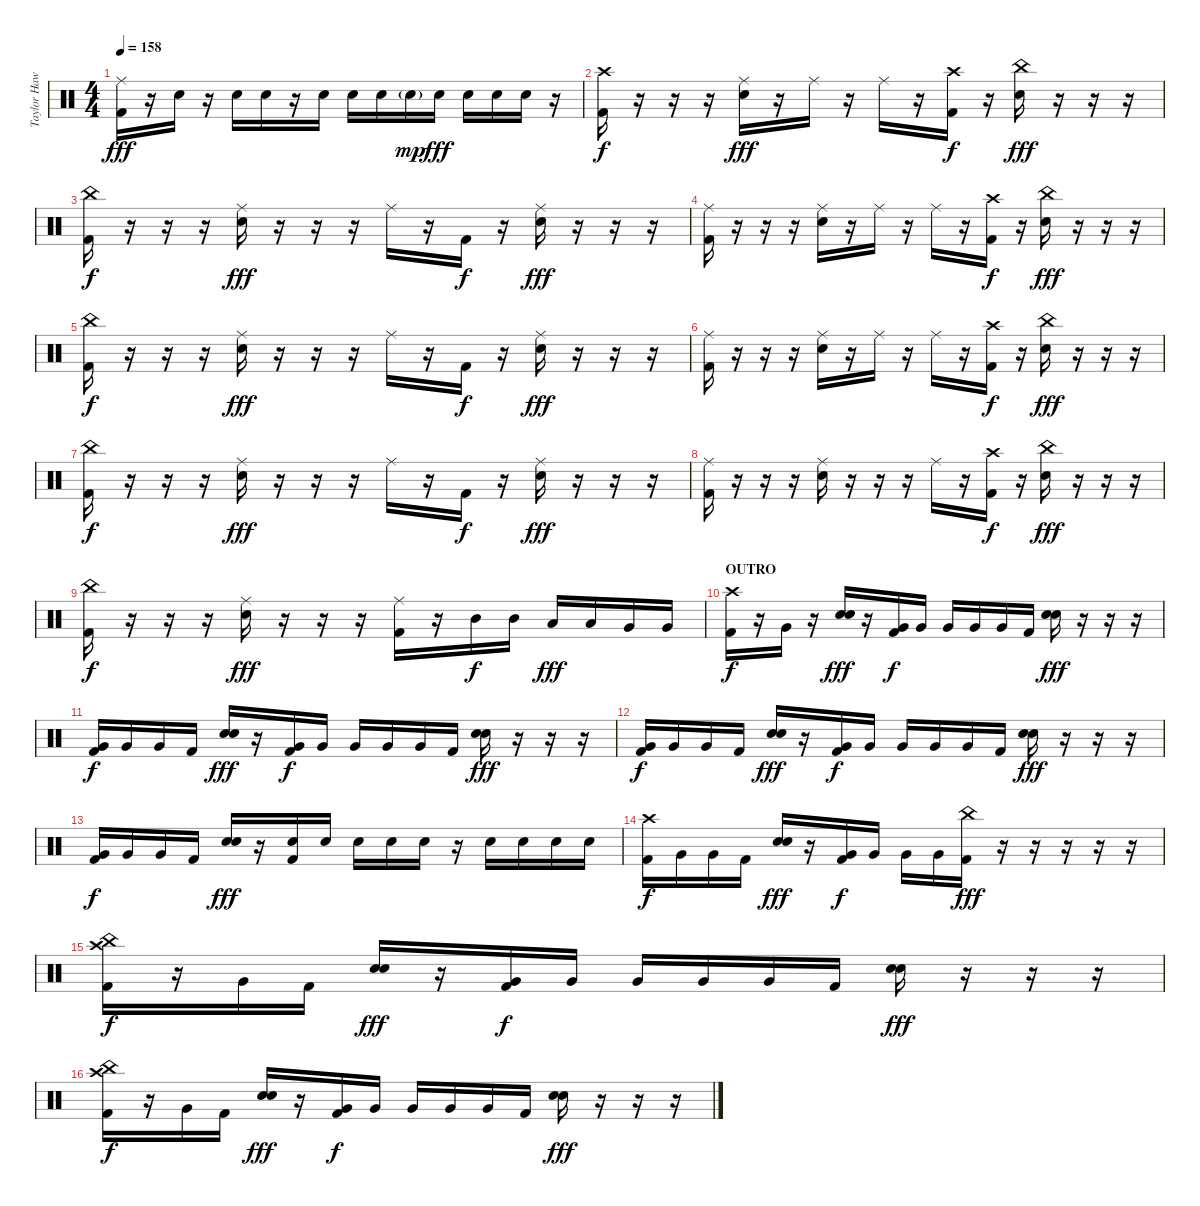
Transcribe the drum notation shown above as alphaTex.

\track ("Taylor Hawkins (Drums)" "Taylor Haw") {instrument percussion}
\staff {score}
\articulation defaults
\ts (4 4)
\tempo 158
\clef neutral
\ks c
("Ride (middle)" "Kick (hit) 2").16{dy fff} r.16 "Electric Snare (hit)".16 r.16 "Electric Snare (hit)".16 "Electric Snare (hit)".16 r.16 "Electric Snare (hit)".16 "Electric Snare (hit)".16 "Electric Snare (hit)".16 "Electric Snare (hit)"{g}.16{dy mp} "Electric Snare (hit)".16{dy fff} "Electric Snare (hit)".16 "Electric Snare (hit)".16 "Electric Snare (hit)".16 r.16 |
("Crash high (hit)" "Kick (hit) 2").16{dy f} r.16 r.16 r.16 ("Ride (middle)" "Electric Snare (hit)").16{dy fff} r.16 "Ride (middle)".16 r.16 "Ride (middle)".16 r.16 ("Crash high (hit)" "Kick (hit) 2").16{dy f} r.16 ("China (hit)" "Electric Snare (hit)").16{dy fff} r.16 r.16 r.16 |
("China (hit)" "Kick (hit) 2").16{dy f} r.16 r.16 r.16 ("Ride (middle)" "Electric Snare (hit)").16{dy fff} r.16 r.16 r.16 "Ride (middle)".16 r.16 "Kick (hit) 2".16{dy f} r.16 ("Ride (middle)" "Electric Snare (hit)").16{dy fff} r.16 r.16 r.16 |
("Ride (middle)" "Kick (hit) 2").16 r.16 r.16 r.16 ("Ride (middle)" "Electric Snare (hit)").16 r.16 "Ride (middle)".16 r.16 "Ride (middle)".16 r.16 ("Crash high (hit)" "Kick (hit) 2").16{dy f} r.16 ("China (hit)" "Electric Snare (hit)").16{dy fff} r.16 r.16 r.16 |
("China (hit)" "Kick (hit) 2").16{dy f} r.16 r.16 r.16 ("Ride (middle)" "Electric Snare (hit)").16{dy fff} r.16 r.16 r.16 "Ride (middle)".16 r.16 "Kick (hit) 2".16{dy f} r.16 ("Ride (middle)" "Electric Snare (hit)").16{dy fff} r.16 r.16 r.16 |
("Ride (middle)" "Kick (hit) 2").16 r.16 r.16 r.16 ("Ride (middle)" "Electric Snare (hit)").16 r.16 "Ride (middle)".16 r.16 "Ride (middle)".16 r.16 ("Crash high (hit)" "Kick (hit) 2").16{dy f} r.16 ("China (hit)" "Electric Snare (hit)").16{dy fff} r.16 r.16 r.16 |
("China (hit)" "Kick (hit) 2").16{dy f} r.16 r.16 r.16 ("Ride (middle)" "Electric Snare (hit)").16{dy fff} r.16 r.16 r.16 "Ride (middle)".16 r.16 "Kick (hit) 2".16{dy f} r.16 ("Ride (middle)" "Electric Snare (hit)").16{dy fff} r.16 r.16 r.16 |
("Ride (middle)" "Kick (hit) 2").16 r.16 r.16 r.16 ("Ride (middle)" "Electric Snare (hit)").16 r.16 r.16 r.16 "Ride (middle)".16 r.16 ("Crash high (hit)" "Kick (hit) 2").16{dy f} r.16 ("China (hit)" "Electric Snare (hit)").16{dy fff} r.16 r.16 r.16 |
("China (hit)" "Kick (hit) 2").16{dy f} r.16 r.16 r.16 ("Ride (middle)" "Electric Snare (hit)").16{dy fff} r.16 r.16 r.16 ("Ride (middle)" "Kick (hit) 2").16 r.16 "Mid Tom (hit)".16{dy f} "Mid Tom (hit)".16 "Low Tom (hit)".16{dy fff} "Low Tom (hit)".16 "Very Low Tom (hit)".16 "Very Low Tom (hit)".16 |
\section ("" "OUTRO")
("Crash high (hit)" "Kick (hit) 2").16{dy f} r.16 "Very Low Tom (hit)".16 r.16 ("Electric Snare (hit)" "Electric Snare (hit)").16{bu 120 dy fff} r.16 ("Very Low Tom (hit)" "Kick (hit) 2").16{dy f} "Very Low Tom (hit)".16 "Very Low Tom (hit)".16 "Very Low Tom (hit)".16 "Very Low Tom (hit)".16 "Kick (hit) 2".16 ("Electric Snare (hit)" "Electric Snare (hit)").16{bu 120 dy fff} r.16 r.16 r.16 |
("Very Low Tom (hit)" "Kick (hit) 2").16{dy f} "Very Low Tom (hit)".16 "Very Low Tom (hit)".16 "Kick (hit) 2".16 ("Electric Snare (hit)" "Electric Snare (hit)").16{bu 120 dy fff} r.16 ("Very Low Tom (hit)" "Kick (hit) 2").16{dy f} "Very Low Tom (hit)".16 "Very Low Tom (hit)".16 "Very Low Tom (hit)".16 "Very Low Tom (hit)".16 "Kick (hit) 2".16 ("Electric Snare (hit)" "Electric Snare (hit)").16{bu 120 dy fff} r.16 r.16 r.16 |
("Very Low Tom (hit)" "Kick (hit) 2").16{dy f} "Very Low Tom (hit)".16 "Very Low Tom (hit)".16 "Kick (hit) 2".16 ("Electric Snare (hit)" "Electric Snare (hit)").16{bu 120 dy fff} r.16 ("Very Low Tom (hit)" "Kick (hit) 2").16{dy f} "Very Low Tom (hit)".16 "Very Low Tom (hit)".16 "Very Low Tom (hit)".16 "Very Low Tom (hit)".16 "Kick (hit) 2".16 ("Electric Snare (hit)" "Electric Snare (hit)").16{bu 120 dy fff} r.16 r.16 r.16 |
("Very Low Tom (hit)" "Kick (hit) 2").16{dy f} "Very Low Tom (hit)".16 "Very Low Tom (hit)".16 "Kick (hit) 2".16 ("Electric Snare (hit)" "Electric Snare (hit)").16{bu 120 dy fff} r.16 ("Electric Snare (hit)" "Kick (hit) 2").16 "Electric Snare (hit)".16 "Electric Snare (hit)".16 "Electric Snare (hit)".16 "Electric Snare (hit)".16 r.16 "Electric Snare (hit)".16 "Electric Snare (hit)".16 "Electric Snare (hit)".16 "Electric Snare (hit)".16 |
("Crash high (hit)" "Kick (hit) 2").16{dy f} "Very Low Tom (hit)".16 "Very Low Tom (hit)".16 "Kick (hit) 2".16 ("Electric Snare (hit)" "Electric Snare (hit)").16{bu 120 dy fff} r.16 ("Very Low Tom (hit)" "Kick (hit) 2").16{dy f} "Very Low Tom (hit)".16 "Very Low Tom (hit)".16 "Very Low Tom (hit)".16 ("China (hit)" "Kick (hit) 2").16{dy fff} r.16 r.16 r.16 r.16 r.16 |
("Crash high (hit)" "China (hit)" "Kick (hit) 2").16{dy f} r.16 "Very Low Tom (hit)".16 "Kick (hit) 2".16 ("Electric Snare (hit)" "Electric Snare (hit)").16{bu 120 dy fff} r.16 ("Very Low Tom (hit)" "Kick (hit) 2").16{dy f} "Very Low Tom (hit)".16 "Very Low Tom (hit)".16 "Very Low Tom (hit)".16 "Very Low Tom (hit)".16 "Kick (hit) 2".16 ("Electric Snare (hit)" "Electric Snare (hit)").16{bu 120 dy fff} r.16 r.16 r.16 |
("Crash high (hit)" "China (hit)" "Kick (hit) 2").16{dy f} r.16 "Very Low Tom (hit)".16 "Kick (hit) 2".16 ("Electric Snare (hit)" "Electric Snare (hit)").16{bu 120 dy fff} r.16 ("Very Low Tom (hit)" "Kick (hit) 2").16{dy f} "Very Low Tom (hit)".16 "Very Low Tom (hit)".16 "Very Low Tom (hit)".16 "Very Low Tom (hit)".16 "Kick (hit) 2".16 ("Electric Snare (hit)" "Electric Snare (hit)").16{bu 120 dy fff} r.16 r.16 r.16
